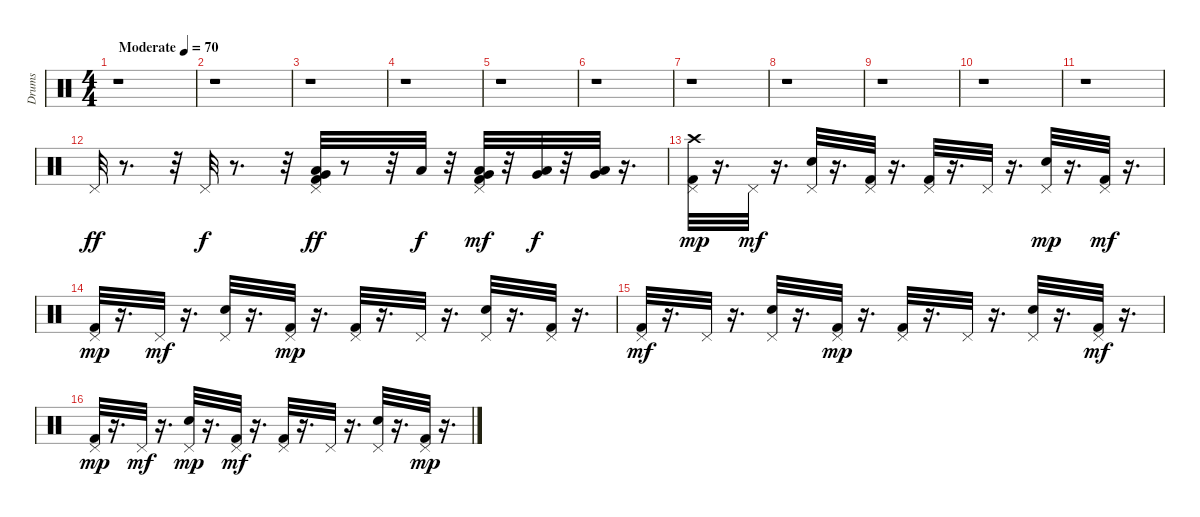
\track ("Drums" "Drums") {instrument percussion}
\staff {score}
\articulation defaults
\ts (4 4)
\tempo (70 "Moderate")
\clef neutral
\ks c
r.1{dy ff} |
r.1 |
r.1 |
r.1 |
r.1 |
r.1 |
r.1 |
r.1 |
r.1 |
r.1 |
r.1 |
"Pedal Hi-Hat (hit)".32 r.8{d} r.32 "Pedal Hi-Hat (hit)".32{dy f} r.8{d} r.32 ("Pedal Hi-Hat (hit)" "Low Tom (hit)" "Kick (hit) 2" "Very Low Tom (hit)").32{dy ff} r.8 r.32 "Low Tom (hit)".32{dy f} r.32 ("Low Tom (hit)" "Pedal Hi-Hat (hit)" "Kick (hit) 2" "Very Low Tom (hit)").32{dy mf} r.32 ("Very Low Tom (hit)" "Low Tom (hit)").32{dy f} r.32 ("Low Tom (hit)" "Very Low Tom (hit)").32 r.16{d} |
("Pedal Hi-Hat (hit)" "Crash high (hit)" "Kick (hit) 2").32{dy mp} r.16{d} "Pedal Hi-Hat (hit)".32{dy mf} r.16{d} ("Pedal Hi-Hat (hit)" "Snare (hit) 2").32 r.16{d} ("Pedal Hi-Hat (hit)" "Kick (hit) 2").32 r.16{d} ("Pedal Hi-Hat (hit)" "Kick (hit) 2").32 r.16{d} "Pedal Hi-Hat (hit)".32 r.16{d} ("Snare (hit) 2" "Pedal Hi-Hat (hit)").32{dy mp} r.16{d} ("Kick (hit) 2" "Pedal Hi-Hat (hit)").32{dy mf} r.16{d} |
("Pedal Hi-Hat (hit)" "Kick (hit) 2").32{dy mp} r.16{d} "Pedal Hi-Hat (hit)".32{dy mf} r.16{d} ("Snare (hit) 2" "Pedal Hi-Hat (hit)").32 r.16{d} ("Kick (hit) 2" "Pedal Hi-Hat (hit)").32{dy mp} r.16{d} ("Pedal Hi-Hat (hit)" "Kick (hit) 2").32 r.16{d} "Pedal Hi-Hat (hit)".32 r.16{d} ("Snare (hit) 2" "Pedal Hi-Hat (hit)").32 r.16{d} ("Kick (hit) 2" "Pedal Hi-Hat (hit)").32 r.16{d} |
("Kick (hit) 2" "Pedal Hi-Hat (hit)").32{dy mf} r.16{d} "Pedal Hi-Hat (hit)".32 r.16{d} ("Snare (hit) 2" "Pedal Hi-Hat (hit)").32 r.16{d} ("Pedal Hi-Hat (hit)" "Kick (hit) 2").32{dy mp} r.16{d} ("Kick (hit) 2" "Pedal Hi-Hat (hit)").32 r.16{d} "Pedal Hi-Hat (hit)".32 r.16{d} ("Pedal Hi-Hat (hit)" "Snare (hit) 2").32 r.16{d} ("Kick (hit) 2" "Pedal Hi-Hat (hit)").32{dy mf} r.16{d} |
("Kick (hit) 2" "Pedal Hi-Hat (hit)").32{dy mp} r.16{d} "Pedal Hi-Hat (hit)".32{dy mf} r.16{d} ("Pedal Hi-Hat (hit)" "Snare (hit) 2").32{dy mp} r.16{d} ("Kick (hit) 2" "Pedal Hi-Hat (hit)").32{dy mf} r.16{d} ("Pedal Hi-Hat (hit)" "Kick (hit) 2").32 r.16{d} "Pedal Hi-Hat (hit)".32 r.16{d} ("Snare (hit) 2" "Pedal Hi-Hat (hit)").32 r.16{d} ("Pedal Hi-Hat (hit)" "Kick (hit) 2").32{dy mp} r.16{d}
